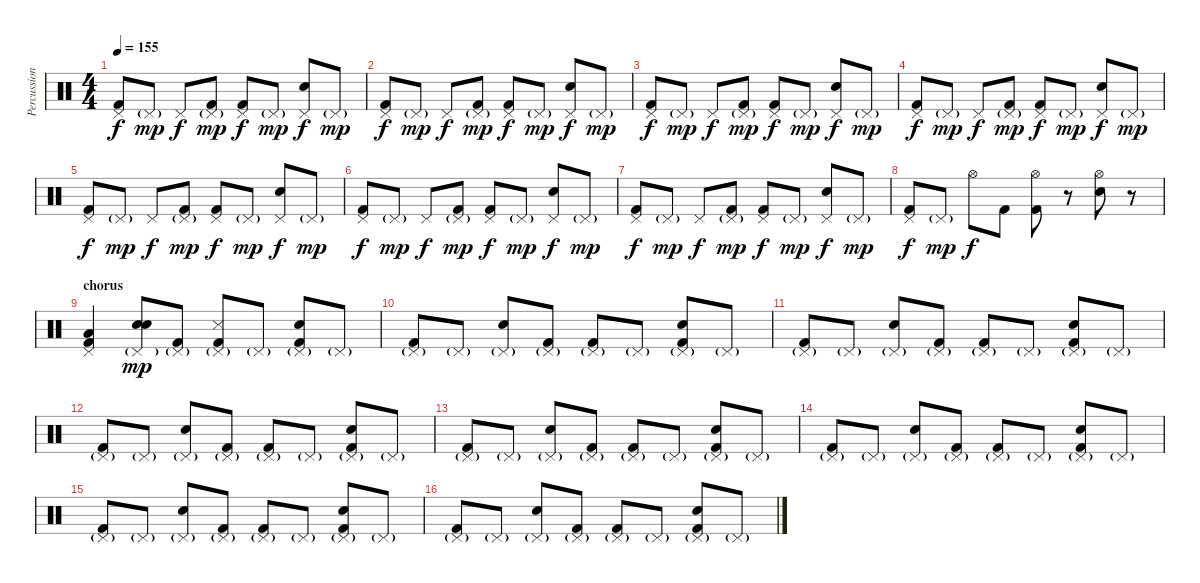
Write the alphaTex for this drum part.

\track ("Percussions" "Percussion") {instrument percussion}
\staff {score}
\articulation defaults
\ts (4 4)
\tempo 155
\clef neutral
\ks c
("Pedal Hi-Hat (hit)" "Kick (hit) 2").8{dy f} "Pedal Hi-Hat (hit)"{g}.8{dy mp} "Pedal Hi-Hat (hit)".8{dy f} ("Pedal Hi-Hat (hit)"{g} "Kick (hit) 2").8{dy mp} ("Pedal Hi-Hat (hit)" "Kick (hit) 2").8{dy f} "Pedal Hi-Hat (hit)"{g}.8{dy mp} ("Pedal Hi-Hat (hit)" "Snare (hit) 2").8{dy f} "Pedal Hi-Hat (hit)"{g}.8{dy mp} |
("Pedal Hi-Hat (hit)" "Kick (hit) 2").8{dy f} "Pedal Hi-Hat (hit)"{g}.8{dy mp} "Pedal Hi-Hat (hit)".8{dy f} ("Pedal Hi-Hat (hit)"{g} "Kick (hit) 2").8{dy mp} ("Pedal Hi-Hat (hit)" "Kick (hit) 2").8{dy f} "Pedal Hi-Hat (hit)"{g}.8{dy mp} ("Pedal Hi-Hat (hit)" "Snare (hit) 2").8{dy f} "Pedal Hi-Hat (hit)"{g}.8{dy mp} |
("Pedal Hi-Hat (hit)" "Kick (hit) 2").8{dy f} "Pedal Hi-Hat (hit)"{g}.8{dy mp} "Pedal Hi-Hat (hit)".8{dy f} ("Pedal Hi-Hat (hit)"{g} "Kick (hit) 2").8{dy mp} ("Pedal Hi-Hat (hit)" "Kick (hit) 2").8{dy f} "Pedal Hi-Hat (hit)"{g}.8{dy mp} ("Pedal Hi-Hat (hit)" "Snare (hit) 2").8{dy f} "Pedal Hi-Hat (hit)"{g}.8{dy mp} |
("Pedal Hi-Hat (hit)" "Kick (hit) 2").8{dy f} "Pedal Hi-Hat (hit)"{g}.8{dy mp} "Pedal Hi-Hat (hit)".8{dy f} ("Pedal Hi-Hat (hit)"{g} "Kick (hit) 2").8{dy mp} ("Pedal Hi-Hat (hit)" "Kick (hit) 2").8{dy f} "Pedal Hi-Hat (hit)"{g}.8{dy mp} ("Pedal Hi-Hat (hit)" "Snare (hit) 2").8{dy f} "Pedal Hi-Hat (hit)"{g}.8{dy mp} |
("Pedal Hi-Hat (hit)" "Kick (hit) 2").8{dy f} "Pedal Hi-Hat (hit)"{g}.8{dy mp} "Pedal Hi-Hat (hit)".8{dy f} ("Pedal Hi-Hat (hit)"{g} "Kick (hit) 2").8{dy mp} ("Pedal Hi-Hat (hit)" "Kick (hit) 2").8{dy f} "Pedal Hi-Hat (hit)"{g}.8{dy mp} ("Pedal Hi-Hat (hit)" "Snare (hit) 2").8{dy f} "Pedal Hi-Hat (hit)"{g}.8{dy mp} |
("Pedal Hi-Hat (hit)" "Kick (hit) 2").8{dy f} "Pedal Hi-Hat (hit)"{g}.8{dy mp} "Pedal Hi-Hat (hit)".8{dy f} ("Pedal Hi-Hat (hit)"{g} "Kick (hit) 2").8{dy mp} ("Pedal Hi-Hat (hit)" "Kick (hit) 2").8{dy f} "Pedal Hi-Hat (hit)"{g}.8{dy mp} ("Pedal Hi-Hat (hit)" "Snare (hit) 2").8{dy f} "Pedal Hi-Hat (hit)"{g}.8{dy mp} |
("Pedal Hi-Hat (hit)" "Kick (hit) 2").8{dy f} "Pedal Hi-Hat (hit)"{g}.8{dy mp} "Pedal Hi-Hat (hit)".8{dy f} ("Pedal Hi-Hat (hit)"{g} "Kick (hit) 2").8{dy mp} ("Pedal Hi-Hat (hit)" "Kick (hit) 2").8{dy f} "Pedal Hi-Hat (hit)"{g}.8{dy mp} ("Pedal Hi-Hat (hit)" "Snare (hit) 2").8{dy f} "Pedal Hi-Hat (hit)"{g}.8{dy mp} |
("Pedal Hi-Hat (hit)" "Kick (hit) 2").8{dy f} "Pedal Hi-Hat (hit)"{g}.8{dy mp} "Hi-Hat (open)".8{dy f} "Kick (hit) 2".8 ("Hi-Hat (open)" "Kick (hit) 2").8 r.8 ("Hi-Hat (open)" "Snare (hit) 2").8 r.8 |
\section ("" "chorus")
("Pedal Hi-Hat (hit)" "Low Floor Tom (hit)" "Kick (hit) 2").4 ("Pedal Hi-Hat (hit)"{g} "Snare (hit) 2" "Snare (hit) 2").8{dy mp} ("Pedal Hi-Hat (hit)"{g} "Kick (hit) 2").8 ("Pedal Hi-Hat (hit)"{g} "Metronome (hit)" "Kick (hit) 2").8 "Pedal Hi-Hat (hit)"{g}.8 ("Pedal Hi-Hat (hit)"{g} "Snare (hit) 2" "Kick (hit) 2").8 "Pedal Hi-Hat (hit)"{g}.8 |
("Pedal Hi-Hat (hit)"{g} "Kick (hit) 2").8 "Pedal Hi-Hat (hit)"{g}.8 ("Pedal Hi-Hat (hit)"{g} "Snare (hit) 2").8 ("Pedal Hi-Hat (hit)"{g} "Kick (hit) 2").8 ("Pedal Hi-Hat (hit)"{g} "Kick (hit) 2").8 "Pedal Hi-Hat (hit)"{g}.8 ("Pedal Hi-Hat (hit)"{g} "Snare (hit) 2" "Kick (hit) 2").8 "Pedal Hi-Hat (hit)"{g}.8 |
("Pedal Hi-Hat (hit)"{g} "Kick (hit) 2").8 "Pedal Hi-Hat (hit)"{g}.8 ("Pedal Hi-Hat (hit)"{g} "Snare (hit) 2").8 ("Pedal Hi-Hat (hit)"{g} "Kick (hit) 2").8 ("Pedal Hi-Hat (hit)"{g} "Kick (hit) 2").8 "Pedal Hi-Hat (hit)"{g}.8 ("Pedal Hi-Hat (hit)"{g} "Snare (hit) 2" "Kick (hit) 2").8 "Pedal Hi-Hat (hit)"{g}.8 |
("Pedal Hi-Hat (hit)"{g} "Kick (hit) 2").8 "Pedal Hi-Hat (hit)"{g}.8 ("Pedal Hi-Hat (hit)"{g} "Snare (hit) 2").8 ("Pedal Hi-Hat (hit)"{g} "Kick (hit) 2").8 ("Pedal Hi-Hat (hit)"{g} "Kick (hit) 2").8 "Pedal Hi-Hat (hit)"{g}.8 ("Pedal Hi-Hat (hit)"{g} "Snare (hit) 2" "Kick (hit) 2").8 "Pedal Hi-Hat (hit)"{g}.8 |
("Pedal Hi-Hat (hit)"{g} "Kick (hit) 2").8 "Pedal Hi-Hat (hit)"{g}.8 ("Pedal Hi-Hat (hit)"{g} "Snare (hit) 2").8 ("Pedal Hi-Hat (hit)"{g} "Kick (hit) 2").8 ("Pedal Hi-Hat (hit)"{g} "Kick (hit) 2").8 "Pedal Hi-Hat (hit)"{g}.8 ("Pedal Hi-Hat (hit)"{g} "Snare (hit) 2" "Kick (hit) 2").8 "Pedal Hi-Hat (hit)"{g}.8 |
("Pedal Hi-Hat (hit)"{g} "Kick (hit) 2").8 "Pedal Hi-Hat (hit)"{g}.8 ("Pedal Hi-Hat (hit)"{g} "Snare (hit) 2").8 ("Pedal Hi-Hat (hit)"{g} "Kick (hit) 2").8 ("Pedal Hi-Hat (hit)"{g} "Kick (hit) 2").8 "Pedal Hi-Hat (hit)"{g}.8 ("Pedal Hi-Hat (hit)"{g} "Snare (hit) 2" "Kick (hit) 2").8 "Pedal Hi-Hat (hit)"{g}.8 |
("Pedal Hi-Hat (hit)"{g} "Kick (hit) 2").8 "Pedal Hi-Hat (hit)"{g}.8 ("Pedal Hi-Hat (hit)"{g} "Snare (hit) 2").8 ("Pedal Hi-Hat (hit)"{g} "Kick (hit) 2").8 ("Pedal Hi-Hat (hit)"{g} "Kick (hit) 2").8 "Pedal Hi-Hat (hit)"{g}.8 ("Pedal Hi-Hat (hit)"{g} "Snare (hit) 2" "Kick (hit) 2").8 "Pedal Hi-Hat (hit)"{g}.8 |
("Pedal Hi-Hat (hit)"{g} "Kick (hit) 2").8 "Pedal Hi-Hat (hit)"{g}.8 ("Pedal Hi-Hat (hit)"{g} "Snare (hit) 2").8 ("Pedal Hi-Hat (hit)"{g} "Kick (hit) 2").8 ("Pedal Hi-Hat (hit)"{g} "Kick (hit) 2").8 "Pedal Hi-Hat (hit)"{g}.8 ("Pedal Hi-Hat (hit)"{g} "Snare (hit) 2" "Kick (hit) 2").8 "Pedal Hi-Hat (hit)"{g}.8
